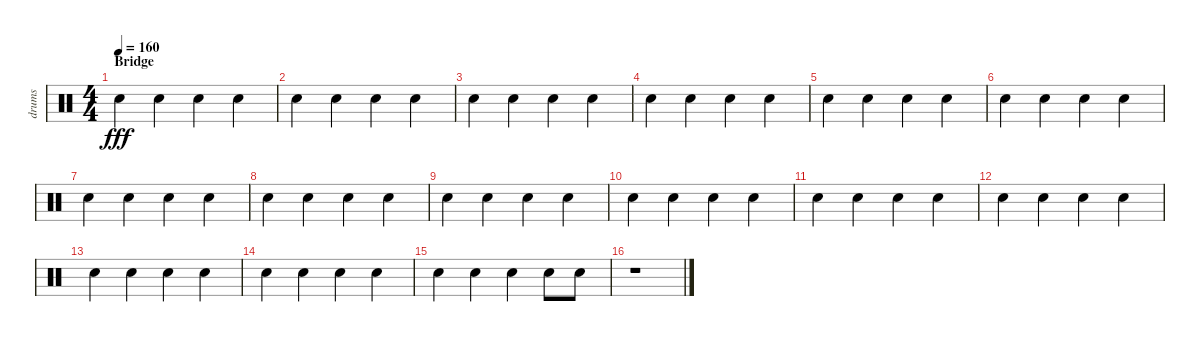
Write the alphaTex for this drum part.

\track ("drums" "drums") {instrument percussion}
\staff {score}
\articulation defaults
\ts (4 4)
\section ("" "Bridge")
\tempo 160
\clef neutral
\ks c "Electric Snare (hit)".4{dy fff} "Electric Snare (hit)".4 "Electric Snare (hit)".4 "Electric Snare (hit)".4
|
"Electric Snare (hit)".4 "Electric Snare (hit)".4 "Electric Snare (hit)".4 "Electric Snare (hit)".4 |
"Electric Snare (hit)".4 "Electric Snare (hit)".4 "Electric Snare (hit)".4 "Electric Snare (hit)".4 |
"Electric Snare (hit)".4 "Electric Snare (hit)".4 "Electric Snare (hit)".4 "Electric Snare (hit)".4 |
"Electric Snare (hit)".4 "Electric Snare (hit)".4 "Electric Snare (hit)".4 "Electric Snare (hit)".4 |
"Electric Snare (hit)".4 "Electric Snare (hit)".4 "Electric Snare (hit)".4 "Electric Snare (hit)".4 |
"Electric Snare (hit)".4 "Electric Snare (hit)".4 "Electric Snare (hit)".4 "Electric Snare (hit)".4 |
"Electric Snare (hit)".4 "Electric Snare (hit)".4 "Electric Snare (hit)".4 "Electric Snare (hit)".4 |
"Electric Snare (hit)".4 "Electric Snare (hit)".4 "Electric Snare (hit)".4 "Electric Snare (hit)".4 |
"Electric Snare (hit)".4 "Electric Snare (hit)".4 "Electric Snare (hit)".4 "Electric Snare (hit)".4 |
"Electric Snare (hit)".4 "Electric Snare (hit)".4 "Electric Snare (hit)".4 "Electric Snare (hit)".4 |
"Electric Snare (hit)".4 "Electric Snare (hit)".4 "Electric Snare (hit)".4 "Electric Snare (hit)".4 |
"Electric Snare (hit)".4 "Electric Snare (hit)".4 "Electric Snare (hit)".4 "Electric Snare (hit)".4 |
"Electric Snare (hit)".4 "Electric Snare (hit)".4 "Electric Snare (hit)".4 "Electric Snare (hit)".4 |
"Electric Snare (hit)".4 "Electric Snare (hit)".4 "Electric Snare (hit)".4 "Electric Snare (hit)".8 "Electric Snare (hit)".8 |
r.1
